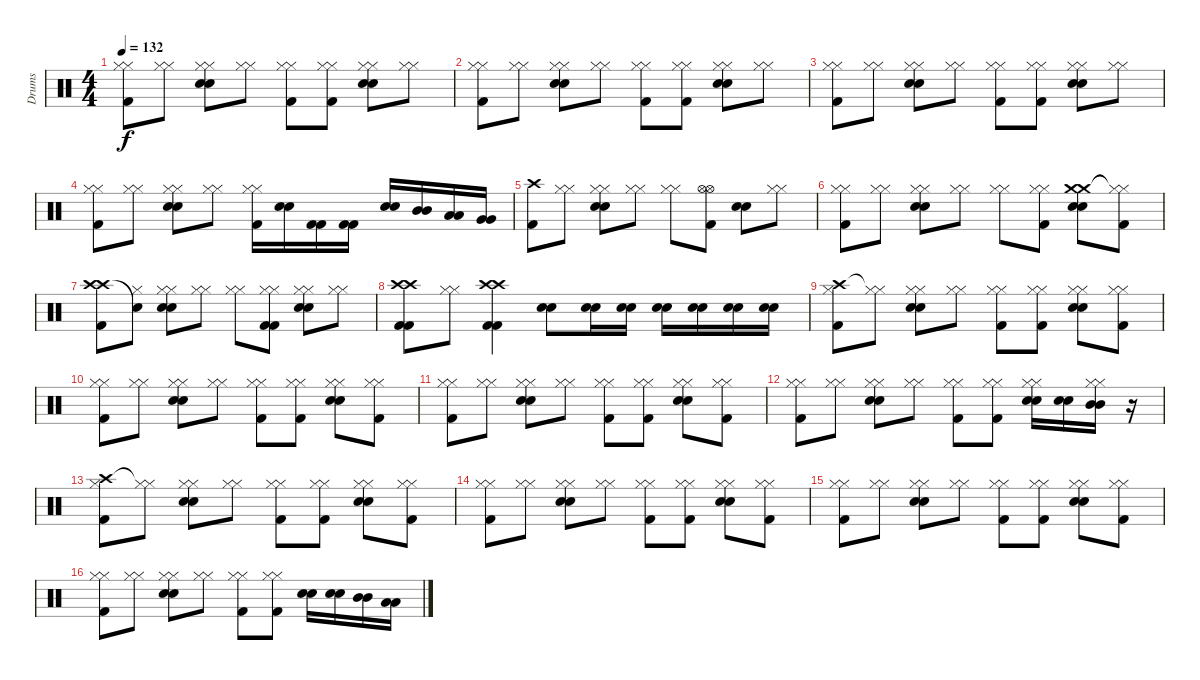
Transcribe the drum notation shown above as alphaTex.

\track ("Drums" "Drums") {instrument percussion}
\staff {score}
\articulation defaults
\ts (4 4)
\tempo 132
\clef neutral
\ks c
("Hi-Hat (closed)" "Hi-Hat (closed)" "Kick (hit) 2").8{dy f} ("Hi-Hat (closed)" "Hi-Hat (closed)").8 ("Hi-Hat (closed)" "Hi-Hat (closed)" "Electric Snare (hit)" "Electric Snare (hit)").8 ("Hi-Hat (closed)" "Hi-Hat (closed)").8 ("Hi-Hat (closed)" "Hi-Hat (closed)" "Kick (hit) 2").8 ("Hi-Hat (closed)" "Hi-Hat (closed)" "Kick (hit) 2").8 ("Hi-Hat (closed)" "Hi-Hat (closed)" "Electric Snare (hit)" "Electric Snare (hit)").8 ("Hi-Hat (closed)" "Hi-Hat (closed)").8 |
("Hi-Hat (closed)" "Hi-Hat (closed)" "Kick (hit) 2").8 ("Hi-Hat (closed)" "Hi-Hat (closed)").8 ("Hi-Hat (closed)" "Hi-Hat (closed)" "Electric Snare (hit)" "Electric Snare (hit)").8 ("Hi-Hat (closed)" "Hi-Hat (closed)").8 ("Hi-Hat (closed)" "Hi-Hat (closed)" "Kick (hit) 2").8 ("Hi-Hat (closed)" "Hi-Hat (closed)" "Kick (hit) 2").8 ("Hi-Hat (closed)" "Hi-Hat (closed)" "Electric Snare (hit)" "Electric Snare (hit)").8 ("Hi-Hat (closed)" "Hi-Hat (closed)").8 |
("Hi-Hat (closed)" "Hi-Hat (closed)" "Kick (hit) 2").8 ("Hi-Hat (closed)" "Hi-Hat (closed)").8 ("Hi-Hat (closed)" "Hi-Hat (closed)" "Electric Snare (hit)" "Electric Snare (hit)").8 ("Hi-Hat (closed)" "Hi-Hat (closed)").8 ("Hi-Hat (closed)" "Hi-Hat (closed)" "Kick (hit) 2").8 ("Hi-Hat (closed)" "Hi-Hat (closed)" "Kick (hit) 2").8 ("Hi-Hat (closed)" "Hi-Hat (closed)" "Electric Snare (hit)" "Electric Snare (hit)").8 ("Hi-Hat (closed)" "Hi-Hat (closed)").8 |
("Hi-Hat (closed)" "Hi-Hat (closed)" "Kick (hit) 2").8 ("Hi-Hat (closed)" "Hi-Hat (closed)").8 ("Hi-Hat (closed)" "Hi-Hat (closed)" "Electric Snare (hit)" "Electric Snare (hit)").8 ("Hi-Hat (closed)" "Hi-Hat (closed)").8 ("Hi-Hat (closed)" "Hi-Hat (closed)" "Kick (hit) 2").16 ("Electric Snare (hit)" "Electric Snare (hit)").16 ("Kick (hit) 2" "Kick (hit) 2").16 ("Kick (hit) 2" "Kick (hit) 2").16 ("Electric Snare (hit)" "Electric Snare (hit)").16 ("Mid Tom (hit)" "Mid Tom (hit)").16 ("Low Tom (hit)" "Low Tom (hit)").16 ("Very Low Tom (hit)" "Very Low Tom (hit)").16 |
("Crash high (hit)" "Kick (hit) 2").8 ("Hi-Hat (closed)" "Hi-Hat (closed)").8 ("Hi-Hat (closed)" "Hi-Hat (closed)" "Electric Snare (hit)" "Electric Snare (hit)").8 ("Hi-Hat (closed)" "Hi-Hat (closed)").8 ("Hi-Hat (closed)" "Hi-Hat (closed)").8 ("Hi-Hat (open)" "Hi-Hat (open)" "Kick (hit) 2").8 ("Electric Snare (hit)" "Electric Snare (hit)").8 ("Hi-Hat (closed)" "Hi-Hat (closed)").8 |
("Hi-Hat (closed)" "Hi-Hat (closed)" "Kick (hit) 2").8 ("Hi-Hat (closed)" "Hi-Hat (closed)").8 ("Hi-Hat (closed)" "Hi-Hat (closed)" "Electric Snare (hit)" "Electric Snare (hit)").8 ("Hi-Hat (closed)" "Hi-Hat (closed)").8 ("Hi-Hat (closed)" "Hi-Hat (closed)").8 ("Hi-Hat (closed)" "Hi-Hat (closed)" "Kick (hit) 2").8 ("Crash medium (hit)" "Crash medium (hit)" "Electric Snare (hit)" "Electric Snare (hit)").8 ("Hi-Hat (closed)"{t} "Hi-Hat (closed)"{t} "Kick (hit) 2").8 |
("Crash high (hit)" "Crash high (hit)" "Kick (hit) 2").8 ("Snare (hit)"{t} "Hi-Hat (closed)").8 ("Hi-Hat (closed)" "Hi-Hat (closed)" "Electric Snare (hit)" "Electric Snare (hit)").8 ("Hi-Hat (closed)" "Hi-Hat (closed)").8 ("Hi-Hat (closed)" "Hi-Hat (closed)").8 ("Hi-Hat (closed)" "Hi-Hat (closed)" "Kick (hit) 2" "Kick (hit) 2").8 ("Hi-Hat (closed)" "Hi-Hat (closed)" "Electric Snare (hit)" "Electric Snare (hit)").8 ("Hi-Hat (closed)" "Hi-Hat (closed)").8 |
("Crash high (hit)" "Crash high (hit)" "Kick (hit) 2" "Kick (hit) 2").8 ("Hi-Hat (closed)" "Hi-Hat (closed)").8 ("Crash high (hit)" "Crash high (hit)" "Kick (hit) 2" "Kick (hit) 2").4 ("Electric Snare (hit)" "Electric Snare (hit)").8 ("Electric Snare (hit)" "Electric Snare (hit)").16 ("Electric Snare (hit)" "Electric Snare (hit)").16 ("Electric Snare (hit)" "Electric Snare (hit)").16 ("Electric Snare (hit)" "Electric Snare (hit)").16 ("Electric Snare (hit)" "Electric Snare (hit)").16 ("Electric Snare (hit)" "Electric Snare (hit)").16 |
("Crash high (hit)" "Hi-Hat (closed)" "Kick (hit) 2").8 ("Hi-Hat (closed)"{t} "Hi-Hat (closed)").8 ("Hi-Hat (closed)" "Hi-Hat (closed)" "Electric Snare (hit)" "Electric Snare (hit)").8 ("Hi-Hat (closed)" "Hi-Hat (closed)").8 ("Hi-Hat (closed)" "Hi-Hat (closed)" "Kick (hit) 2").8 ("Hi-Hat (closed)" "Hi-Hat (closed)" "Kick (hit) 2").8 ("Hi-Hat (closed)" "Hi-Hat (closed)" "Electric Snare (hit)" "Electric Snare (hit)").8 ("Hi-Hat (closed)" "Hi-Hat (closed)" "Kick (hit) 2").8 |
("Hi-Hat (closed)" "Hi-Hat (closed)" "Kick (hit) 2").8 ("Hi-Hat (closed)" "Hi-Hat (closed)").8 ("Hi-Hat (closed)" "Hi-Hat (closed)" "Electric Snare (hit)" "Electric Snare (hit)").8 ("Hi-Hat (closed)" "Hi-Hat (closed)").8 ("Hi-Hat (closed)" "Hi-Hat (closed)" "Kick (hit) 2").8 ("Hi-Hat (closed)" "Hi-Hat (closed)" "Kick (hit) 2").8 ("Hi-Hat (closed)" "Hi-Hat (closed)" "Electric Snare (hit)" "Electric Snare (hit)").8 ("Hi-Hat (closed)" "Hi-Hat (closed)" "Kick (hit) 2").8 |
("Hi-Hat (closed)" "Hi-Hat (closed)" "Kick (hit) 2").8 ("Hi-Hat (closed)" "Hi-Hat (closed)").8 ("Hi-Hat (closed)" "Hi-Hat (closed)" "Electric Snare (hit)" "Electric Snare (hit)").8 ("Hi-Hat (closed)" "Hi-Hat (closed)").8 ("Hi-Hat (closed)" "Hi-Hat (closed)" "Kick (hit) 2").8 ("Hi-Hat (closed)" "Hi-Hat (closed)" "Kick (hit) 2").8 ("Hi-Hat (closed)" "Hi-Hat (closed)" "Electric Snare (hit)" "Electric Snare (hit)").8 ("Hi-Hat (closed)" "Hi-Hat (closed)" "Kick (hit) 2").8 |
("Hi-Hat (closed)" "Hi-Hat (closed)" "Kick (hit) 2").8 ("Hi-Hat (closed)" "Hi-Hat (closed)").8 ("Hi-Hat (closed)" "Hi-Hat (closed)" "Electric Snare (hit)" "Electric Snare (hit)").8 ("Hi-Hat (closed)" "Hi-Hat (closed)").8 ("Hi-Hat (closed)" "Hi-Hat (closed)" "Kick (hit) 2").8 ("Hi-Hat (closed)" "Hi-Hat (closed)" "Kick (hit) 2").8 ("Hi-Hat (closed)" "Hi-Hat (closed)" "Electric Snare (hit)" "Electric Snare (hit)").16 ("Electric Snare (hit)" "Electric Snare (hit)").16 ("Hi-Hat (closed)" "Hi-Hat (closed)" "Mid Tom (hit)" "Mid Tom (hit)").16 r.16 |
("Crash high (hit)" "Hi-Hat (closed)" "Kick (hit) 2").8 ("Hi-Hat (closed)"{t} "Hi-Hat (closed)").8 ("Hi-Hat (closed)" "Hi-Hat (closed)" "Electric Snare (hit)" "Electric Snare (hit)").8 ("Hi-Hat (closed)" "Hi-Hat (closed)").8 ("Hi-Hat (closed)" "Hi-Hat (closed)" "Kick (hit) 2").8 ("Hi-Hat (closed)" "Hi-Hat (closed)" "Kick (hit) 2").8 ("Hi-Hat (closed)" "Hi-Hat (closed)" "Electric Snare (hit)" "Electric Snare (hit)").8 ("Hi-Hat (closed)" "Hi-Hat (closed)" "Kick (hit) 2").8 |
("Hi-Hat (closed)" "Hi-Hat (closed)" "Kick (hit) 2").8 ("Hi-Hat (closed)" "Hi-Hat (closed)").8 ("Hi-Hat (closed)" "Hi-Hat (closed)" "Electric Snare (hit)" "Electric Snare (hit)").8 ("Hi-Hat (closed)" "Hi-Hat (closed)").8 ("Hi-Hat (closed)" "Hi-Hat (closed)" "Kick (hit) 2").8 ("Hi-Hat (closed)" "Hi-Hat (closed)" "Kick (hit) 2").8 ("Hi-Hat (closed)" "Hi-Hat (closed)" "Electric Snare (hit)" "Electric Snare (hit)").8 ("Hi-Hat (closed)" "Hi-Hat (closed)" "Kick (hit) 2").8 |
("Hi-Hat (closed)" "Hi-Hat (closed)" "Kick (hit) 2").8 ("Hi-Hat (closed)" "Hi-Hat (closed)").8 ("Hi-Hat (closed)" "Hi-Hat (closed)" "Electric Snare (hit)" "Electric Snare (hit)").8 ("Hi-Hat (closed)" "Hi-Hat (closed)").8 ("Hi-Hat (closed)" "Hi-Hat (closed)" "Kick (hit) 2").8 ("Hi-Hat (closed)" "Hi-Hat (closed)" "Kick (hit) 2").8 ("Hi-Hat (closed)" "Hi-Hat (closed)" "Electric Snare (hit)" "Electric Snare (hit)").8 ("Hi-Hat (closed)" "Hi-Hat (closed)" "Kick (hit) 2").8 |
("Hi-Hat (closed)" "Hi-Hat (closed)" "Kick (hit) 2").8 ("Hi-Hat (closed)" "Hi-Hat (closed)").8 ("Hi-Hat (closed)" "Hi-Hat (closed)" "Electric Snare (hit)" "Electric Snare (hit)").8 ("Hi-Hat (closed)" "Hi-Hat (closed)").8 ("Hi-Hat (closed)" "Hi-Hat (closed)" "Kick (hit) 2").8 ("Hi-Hat (closed)" "Hi-Hat (closed)" "Kick (hit) 2").8 ("Electric Snare (hit)" "Electric Snare (hit)").16 ("Electric Snare (hit)" "Electric Snare (hit)").16 ("Mid Tom (hit)" "Mid Tom (hit)").16 ("Low Tom (hit)" "Low Tom (hit)").16
